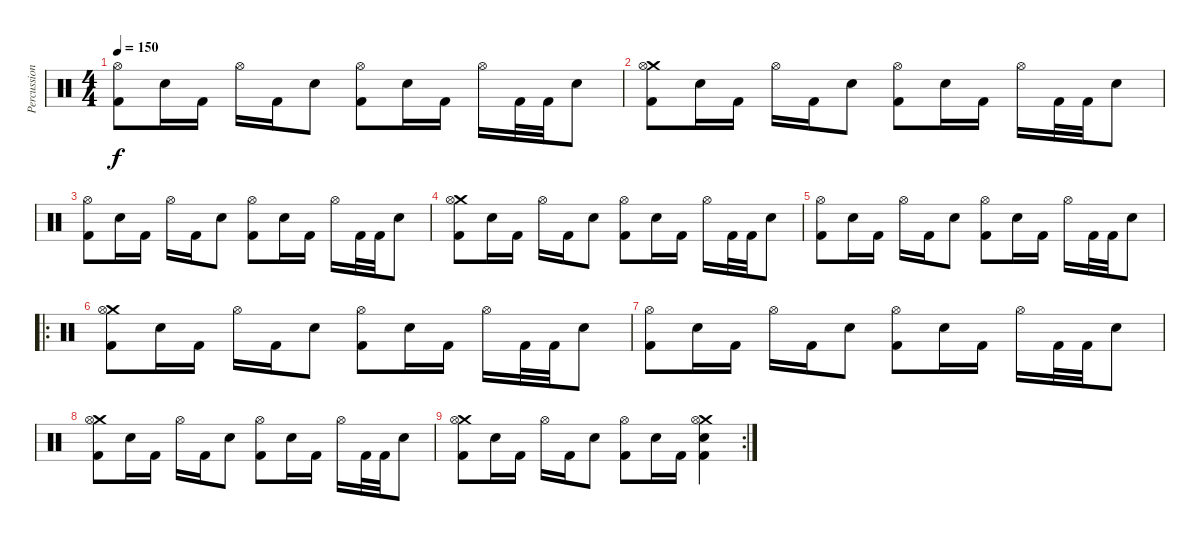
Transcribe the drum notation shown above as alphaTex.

\track ("Percussion" "Percussion") {instrument percussion}
\staff {score}
\articulation defaults
\ts (4 4)
\tempo 150
\clef neutral
\ks c
("Hi-Hat (open)" "Kick (hit) 2").8{dy f} "Electric Snare (hit)".16 "Kick (hit) 2".16 "Hi-Hat (open)".16 "Kick (hit) 2".16 "Electric Snare (hit)".8 ("Hi-Hat (open)" "Kick (hit) 2").8 "Electric Snare (hit)".16 "Kick (hit) 2".16 "Hi-Hat (open)".16 "Kick (hit) 2".32 "Kick (hit) 2".32 "Electric Snare (hit)".8 |
("Crash medium (hit)" "Hi-Hat (open)" "Kick (hit) 2").8 "Electric Snare (hit)".16 "Kick (hit) 2".16 "Hi-Hat (open)".16 "Kick (hit) 2".16 "Electric Snare (hit)".8 ("Hi-Hat (open)" "Kick (hit) 2").8 "Electric Snare (hit)".16 "Kick (hit) 2".16 "Hi-Hat (open)".16 "Kick (hit) 2".32 "Kick (hit) 2".32 "Electric Snare (hit)".8 |
("Hi-Hat (open)" "Kick (hit) 2").8 "Electric Snare (hit)".16 "Kick (hit) 2".16 "Hi-Hat (open)".16 "Kick (hit) 2".16 "Electric Snare (hit)".8 ("Hi-Hat (open)" "Kick (hit) 2").8 "Electric Snare (hit)".16 "Kick (hit) 2".16 "Hi-Hat (open)".16 "Kick (hit) 2".32 "Kick (hit) 2".32 "Electric Snare (hit)".8 |
("Crash medium (hit)" "Hi-Hat (open)" "Kick (hit) 2").8 "Electric Snare (hit)".16 "Kick (hit) 2".16 "Hi-Hat (open)".16 "Kick (hit) 2".16 "Electric Snare (hit)".8 ("Hi-Hat (open)" "Kick (hit) 2").8 "Electric Snare (hit)".16 "Kick (hit) 2".16 "Hi-Hat (open)".16 "Kick (hit) 2".32 "Kick (hit) 2".32 "Electric Snare (hit)".8 |
("Hi-Hat (open)" "Kick (hit) 2").8 "Electric Snare (hit)".16 "Kick (hit) 2".16 "Hi-Hat (open)".16 "Kick (hit) 2".16 "Electric Snare (hit)".8 ("Hi-Hat (open)" "Kick (hit) 2").8 "Electric Snare (hit)".16 "Kick (hit) 2".16 "Hi-Hat (open)".16 "Kick (hit) 2".32 "Kick (hit) 2".32 "Electric Snare (hit)".8 |
\ro
("Crash medium (hit)" "Hi-Hat (open)" "Kick (hit) 2").8 "Electric Snare (hit)".16 "Kick (hit) 2".16 "Hi-Hat (open)".16 "Kick (hit) 2".16 "Electric Snare (hit)".8 ("Hi-Hat (open)" "Kick (hit) 2").8 "Electric Snare (hit)".16 "Kick (hit) 2".16 "Hi-Hat (open)".16 "Kick (hit) 2".32 "Kick (hit) 2".32 "Electric Snare (hit)".8 |
("Hi-Hat (open)" "Kick (hit) 2").8 "Electric Snare (hit)".16 "Kick (hit) 2".16 "Hi-Hat (open)".16 "Kick (hit) 2".16 "Electric Snare (hit)".8 ("Hi-Hat (open)" "Kick (hit) 2").8 "Electric Snare (hit)".16 "Kick (hit) 2".16 "Hi-Hat (open)".16 "Kick (hit) 2".32 "Kick (hit) 2".32 "Electric Snare (hit)".8 |
("Crash medium (hit)" "Hi-Hat (open)" "Kick (hit) 2").8 "Electric Snare (hit)".16 "Kick (hit) 2".16 "Hi-Hat (open)".16 "Kick (hit) 2".16 "Electric Snare (hit)".8 ("Hi-Hat (open)" "Kick (hit) 2").8 "Electric Snare (hit)".16 "Kick (hit) 2".16 "Hi-Hat (open)".16 "Kick (hit) 2".32 "Kick (hit) 2".32 "Electric Snare (hit)".8 |
\rc 2
("Crash medium (hit)" "Hi-Hat (open)" "Kick (hit) 2").8 "Electric Snare (hit)".16 "Kick (hit) 2".16 "Hi-Hat (open)".16 "Kick (hit) 2".16 "Electric Snare (hit)".8 ("Hi-Hat (open)" "Kick (hit) 2").8 "Electric Snare (hit)".16 "Kick (hit) 2".16 ("Crash medium (hit)" "Hi-Hat (open)" "Electric Snare (hit)" "Kick (hit) 2").4
